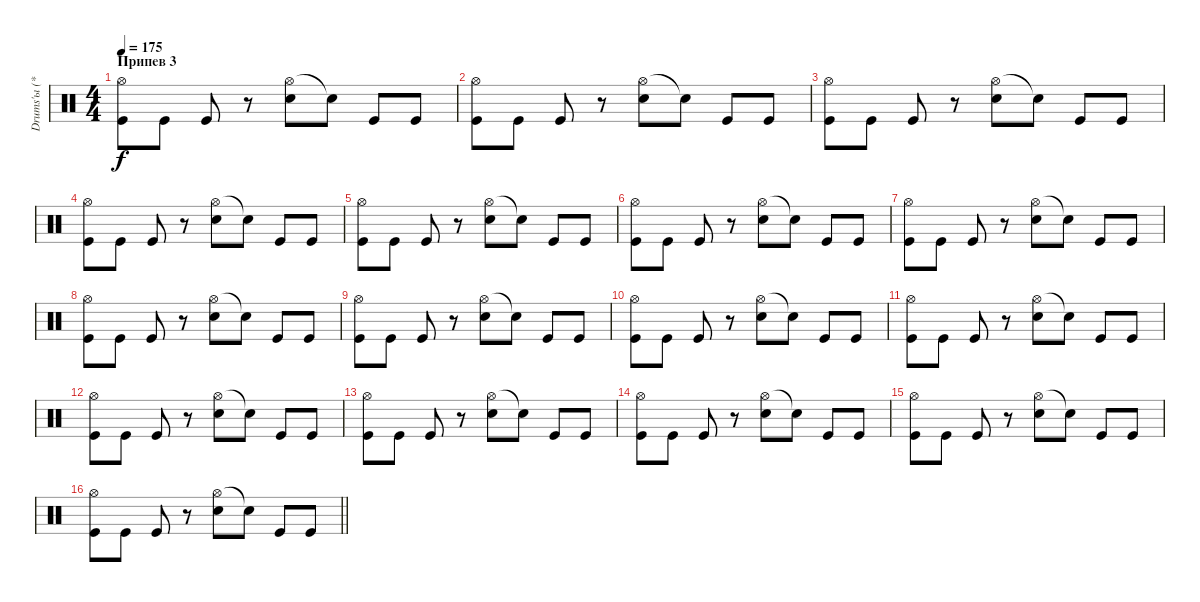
\track ("Drums'ы (***)" "Drums'ы (*") {instrument percussion}
\staff {score}
\articulation defaults
\ts (4 4)
\section ("" "Припев 3")
\tempo 175
\clef neutral
\ks c
("Hi-Hat (open)" "Kick (hit)").8{dy f} "Kick (hit)".8 "Kick (hit)".8 r.8 ("Hi-Hat (open)" "Electric Snare (hit)").8 "Snare (hit)"{t}.8 "Kick (hit)".8 "Kick (hit)".8 |
("Hi-Hat (open)" "Kick (hit)").8 "Kick (hit)".8 "Kick (hit)".8 r.8 ("Hi-Hat (open)" "Electric Snare (hit)").8 "Snare (hit)"{t}.8 "Kick (hit)".8 "Kick (hit)".8 |
("Hi-Hat (open)" "Kick (hit)").8 "Kick (hit)".8 "Kick (hit)".8 r.8 ("Hi-Hat (open)" "Electric Snare (hit)").8 "Snare (hit)"{t}.8 "Kick (hit)".8 "Kick (hit)".8 |
("Hi-Hat (open)" "Kick (hit)").8 "Kick (hit)".8 "Kick (hit)".8 r.8 ("Hi-Hat (open)" "Electric Snare (hit)").8 "Snare (hit)"{t}.8 "Kick (hit)".8 "Kick (hit)".8 |
("Hi-Hat (open)" "Kick (hit)").8 "Kick (hit)".8 "Kick (hit)".8 r.8 ("Hi-Hat (open)" "Electric Snare (hit)").8 "Snare (hit)"{t}.8 "Kick (hit)".8 "Kick (hit)".8 |
("Hi-Hat (open)" "Kick (hit)").8 "Kick (hit)".8 "Kick (hit)".8 r.8 ("Hi-Hat (open)" "Electric Snare (hit)").8 "Snare (hit)"{t}.8 "Kick (hit)".8 "Kick (hit)".8 |
("Hi-Hat (open)" "Kick (hit)").8 "Kick (hit)".8 "Kick (hit)".8 r.8 ("Hi-Hat (open)" "Electric Snare (hit)").8 "Snare (hit)"{t}.8 "Kick (hit)".8 "Kick (hit)".8 |
("Hi-Hat (open)" "Kick (hit)").8 "Kick (hit)".8 "Kick (hit)".8 r.8 ("Hi-Hat (open)" "Electric Snare (hit)").8 "Snare (hit)"{t}.8 "Kick (hit)".8 "Kick (hit)".8 |
("Hi-Hat (open)" "Kick (hit)").8 "Kick (hit)".8 "Kick (hit)".8 r.8 ("Hi-Hat (open)" "Electric Snare (hit)").8 "Snare (hit)"{t}.8 "Kick (hit)".8 "Kick (hit)".8 |
("Hi-Hat (open)" "Kick (hit)").8 "Kick (hit)".8 "Kick (hit)".8 r.8 ("Hi-Hat (open)" "Electric Snare (hit)").8 "Snare (hit)"{t}.8 "Kick (hit)".8 "Kick (hit)".8 |
("Hi-Hat (open)" "Kick (hit)").8 "Kick (hit)".8 "Kick (hit)".8 r.8 ("Hi-Hat (open)" "Electric Snare (hit)").8 "Snare (hit)"{t}.8 "Kick (hit)".8 "Kick (hit)".8 |
("Hi-Hat (open)" "Kick (hit)").8 "Kick (hit)".8 "Kick (hit)".8 r.8 ("Hi-Hat (open)" "Electric Snare (hit)").8 "Snare (hit)"{t}.8 "Kick (hit)".8 "Kick (hit)".8 |
("Hi-Hat (open)" "Kick (hit)").8 "Kick (hit)".8 "Kick (hit)".8 r.8 ("Hi-Hat (open)" "Electric Snare (hit)").8 "Snare (hit)"{t}.8 "Kick (hit)".8 "Kick (hit)".8 |
("Hi-Hat (open)" "Kick (hit)").8 "Kick (hit)".8 "Kick (hit)".8 r.8 ("Hi-Hat (open)" "Electric Snare (hit)").8 "Snare (hit)"{t}.8 "Kick (hit)".8 "Kick (hit)".8 |
("Hi-Hat (open)" "Kick (hit)").8 "Kick (hit)".8 "Kick (hit)".8 r.8 ("Hi-Hat (open)" "Electric Snare (hit)").8 "Snare (hit)"{t}.8 "Kick (hit)".8 "Kick (hit)".8 |
\barLineRight lightlight
("Hi-Hat (open)" "Kick (hit)").8 "Kick (hit)".8 "Kick (hit)".8 r.8 ("Hi-Hat (open)" "Electric Snare (hit)").8 "Snare (hit)"{t}.8 "Kick (hit)".8 "Kick (hit)".8
